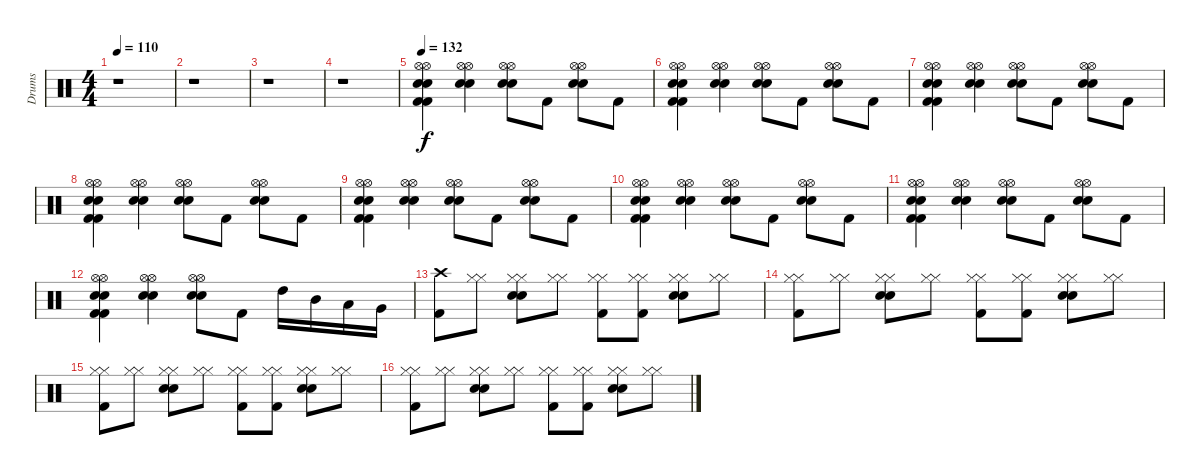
\track ("Drums" "Drums") {instrument percussion}
\staff {score}
\articulation defaults
\ts (4 4)
\tempo 110
\clef neutral
\ks c
r.1{dy f} |
r.1 |
r.1 |
r.1 |
\tempo 132
("Hi-Hat (open)" "Hi-Hat (open)" "Electric Snare (hit)" "Electric Snare (hit)" "Kick (hit) 2" "Kick (hit) 2").4 ("Hi-Hat (open)" "Hi-Hat (open)" "Electric Snare (hit)" "Electric Snare (hit)").4 ("Hi-Hat (open)" "Hi-Hat (open)" "Electric Snare (hit)" "Electric Snare (hit)").8 "Kick (hit) 2".8 ("Hi-Hat (open)" "Hi-Hat (open)" "Electric Snare (hit)" "Electric Snare (hit)").8 "Kick (hit) 2".8 |
("Hi-Hat (open)" "Hi-Hat (open)" "Electric Snare (hit)" "Electric Snare (hit)" "Kick (hit) 2" "Kick (hit) 2").4 ("Hi-Hat (open)" "Hi-Hat (open)" "Electric Snare (hit)" "Electric Snare (hit)").4 ("Hi-Hat (open)" "Hi-Hat (open)" "Electric Snare (hit)" "Electric Snare (hit)").8 "Kick (hit) 2".8 ("Hi-Hat (open)" "Hi-Hat (open)" "Electric Snare (hit)" "Electric Snare (hit)").8 "Kick (hit) 2".8 |
("Hi-Hat (open)" "Hi-Hat (open)" "Electric Snare (hit)" "Electric Snare (hit)" "Kick (hit) 2" "Kick (hit) 2").4 ("Hi-Hat (open)" "Hi-Hat (open)" "Electric Snare (hit)" "Electric Snare (hit)").4 ("Hi-Hat (open)" "Hi-Hat (open)" "Electric Snare (hit)" "Electric Snare (hit)").8 "Kick (hit) 2".8 ("Hi-Hat (open)" "Hi-Hat (open)" "Electric Snare (hit)" "Electric Snare (hit)").8 "Kick (hit) 2".8 |
("Hi-Hat (open)" "Hi-Hat (open)" "Electric Snare (hit)" "Electric Snare (hit)" "Kick (hit) 2" "Kick (hit) 2").4 ("Hi-Hat (open)" "Hi-Hat (open)" "Electric Snare (hit)" "Electric Snare (hit)").4 ("Hi-Hat (open)" "Hi-Hat (open)" "Electric Snare (hit)" "Electric Snare (hit)").8 "Kick (hit) 2".8 ("Hi-Hat (open)" "Hi-Hat (open)" "Electric Snare (hit)" "Electric Snare (hit)").8 "Kick (hit) 2".8 |
("Hi-Hat (open)" "Hi-Hat (open)" "Electric Snare (hit)" "Electric Snare (hit)" "Kick (hit) 2" "Kick (hit) 2").4 ("Hi-Hat (open)" "Hi-Hat (open)" "Electric Snare (hit)" "Electric Snare (hit)").4 ("Hi-Hat (open)" "Hi-Hat (open)" "Electric Snare (hit)" "Electric Snare (hit)").8 "Kick (hit) 2".8 ("Hi-Hat (open)" "Hi-Hat (open)" "Electric Snare (hit)" "Electric Snare (hit)").8 "Kick (hit) 2".8 |
("Hi-Hat (open)" "Hi-Hat (open)" "Electric Snare (hit)" "Electric Snare (hit)" "Kick (hit) 2" "Kick (hit) 2").4 ("Hi-Hat (open)" "Hi-Hat (open)" "Electric Snare (hit)" "Electric Snare (hit)").4 ("Hi-Hat (open)" "Hi-Hat (open)" "Electric Snare (hit)" "Electric Snare (hit)").8 "Kick (hit) 2".8 ("Hi-Hat (open)" "Hi-Hat (open)" "Electric Snare (hit)" "Electric Snare (hit)").8 "Kick (hit) 2".8 |
("Hi-Hat (open)" "Hi-Hat (open)" "Electric Snare (hit)" "Electric Snare (hit)" "Kick (hit) 2" "Kick (hit) 2").4 ("Hi-Hat (open)" "Hi-Hat (open)" "Electric Snare (hit)" "Electric Snare (hit)").4 ("Hi-Hat (open)" "Hi-Hat (open)" "Electric Snare (hit)" "Electric Snare (hit)").8 "Kick (hit) 2".8 ("Hi-Hat (open)" "Hi-Hat (open)" "Electric Snare (hit)" "Electric Snare (hit)").8 "Kick (hit) 2".8 |
("Hi-Hat (open)" "Hi-Hat (open)" "Electric Snare (hit)" "Electric Snare (hit)" "Kick (hit) 2" "Kick (hit) 2").4 ("Hi-Hat (open)" "Hi-Hat (open)" "Electric Snare (hit)" "Electric Snare (hit)").4 ("Hi-Hat (open)" "Hi-Hat (open)" "Electric Snare (hit)" "Electric Snare (hit)").8 "Kick (hit) 2".8 "High Tom (hit)".16 "Mid Tom (hit)".16 "Low Tom (hit)".16 "Very Low Tom (hit)".16 |
("Crash high (hit)" "Kick (hit) 2").8 ("Hi-Hat (closed)" "Hi-Hat (closed)").8 ("Hi-Hat (closed)" "Hi-Hat (closed)" "Electric Snare (hit)" "Electric Snare (hit)").8 ("Hi-Hat (closed)" "Hi-Hat (closed)").8 ("Hi-Hat (closed)" "Hi-Hat (closed)" "Kick (hit) 2").8 ("Hi-Hat (closed)" "Hi-Hat (closed)" "Kick (hit) 2").8 ("Hi-Hat (closed)" "Hi-Hat (closed)" "Electric Snare (hit)" "Electric Snare (hit)").8 ("Hi-Hat (closed)" "Hi-Hat (closed)").8 |
("Hi-Hat (closed)" "Hi-Hat (closed)" "Kick (hit) 2").8 ("Hi-Hat (closed)" "Hi-Hat (closed)").8 ("Hi-Hat (closed)" "Hi-Hat (closed)" "Electric Snare (hit)" "Electric Snare (hit)").8 ("Hi-Hat (closed)" "Hi-Hat (closed)").8 ("Hi-Hat (closed)" "Hi-Hat (closed)" "Kick (hit) 2").8 ("Hi-Hat (closed)" "Hi-Hat (closed)" "Kick (hit) 2").8 ("Hi-Hat (closed)" "Hi-Hat (closed)" "Electric Snare (hit)" "Electric Snare (hit)").8 ("Hi-Hat (closed)" "Hi-Hat (closed)").8 |
("Hi-Hat (closed)" "Hi-Hat (closed)" "Kick (hit) 2").8 ("Hi-Hat (closed)" "Hi-Hat (closed)").8 ("Hi-Hat (closed)" "Hi-Hat (closed)" "Electric Snare (hit)" "Electric Snare (hit)").8 ("Hi-Hat (closed)" "Hi-Hat (closed)").8 ("Hi-Hat (closed)" "Hi-Hat (closed)" "Kick (hit) 2").8 ("Hi-Hat (closed)" "Hi-Hat (closed)" "Kick (hit) 2").8 ("Hi-Hat (closed)" "Hi-Hat (closed)" "Electric Snare (hit)" "Electric Snare (hit)").8 ("Hi-Hat (closed)" "Hi-Hat (closed)").8 |
("Hi-Hat (closed)" "Hi-Hat (closed)" "Kick (hit) 2").8 ("Hi-Hat (closed)" "Hi-Hat (closed)").8 ("Hi-Hat (closed)" "Hi-Hat (closed)" "Electric Snare (hit)" "Electric Snare (hit)").8 ("Hi-Hat (closed)" "Hi-Hat (closed)").8 ("Hi-Hat (closed)" "Hi-Hat (closed)" "Kick (hit) 2").8 ("Hi-Hat (closed)" "Hi-Hat (closed)" "Kick (hit) 2").8 ("Hi-Hat (closed)" "Hi-Hat (closed)" "Electric Snare (hit)" "Electric Snare (hit)").8 ("Hi-Hat (closed)" "Hi-Hat (closed)").8
